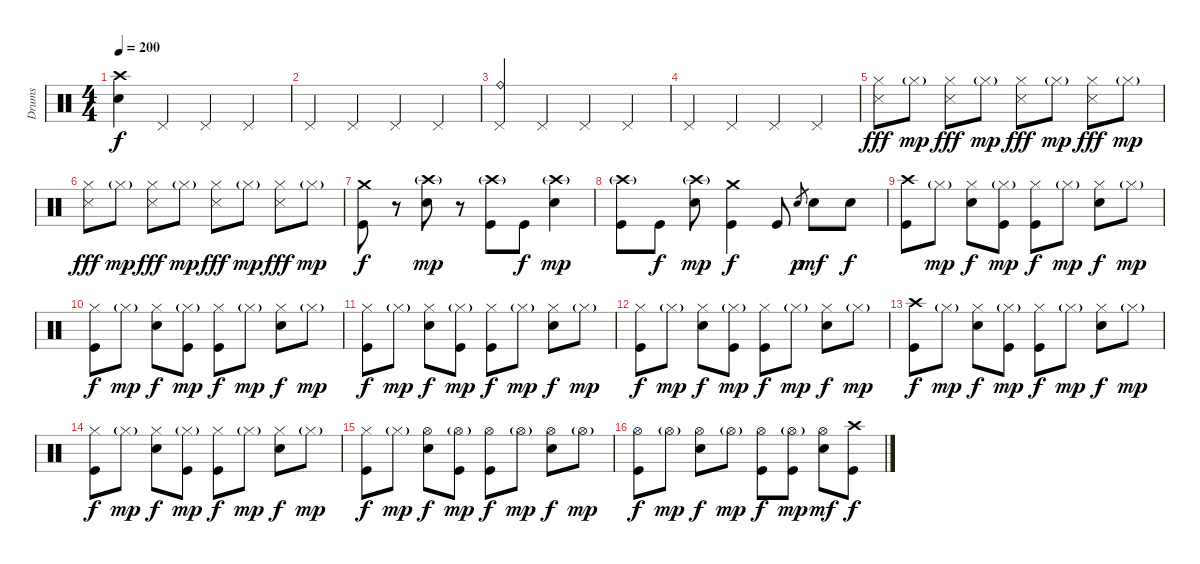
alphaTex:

\track ("Drums" "Drums") {instrument percussion}
\staff {score}
\articulation defaults
\ts (4 4)
\tempo 200
\clef neutral
\ks c
("Crash high (hit)" "Electric Snare (hit)").4{dy f} "Pedal Hi-Hat (hit)".4 "Pedal Hi-Hat (hit)".4 "Pedal Hi-Hat (hit)".4 |
"Pedal Hi-Hat (hit)".4 "Pedal Hi-Hat (hit)".4 "Pedal Hi-Hat (hit)".4 "Pedal Hi-Hat (hit)".4 |
("Ride (bell)" "Pedal Hi-Hat (hit)").4 "Pedal Hi-Hat (hit)".4 "Pedal Hi-Hat (hit)".4 "Pedal Hi-Hat (hit)".4 |
"Pedal Hi-Hat (hit)".4 "Pedal Hi-Hat (hit)".4 "Pedal Hi-Hat (hit)".4 "Pedal Hi-Hat (hit)".4 |
("Hi-Hat (closed)" "Snare (side stick) 3").8{dy fff} "Hi-Hat (closed)"{g}.8{dy mp} ("Hi-Hat (closed)" "Snare (side stick) 3").8{dy fff} "Hi-Hat (closed)"{g}.8{dy mp} ("Hi-Hat (closed)" "Snare (side stick) 3").8{dy fff} "Hi-Hat (closed)"{g}.8{dy mp} ("Hi-Hat (closed)" "Snare (side stick) 3").8{dy fff} "Hi-Hat (closed)"{g}.8{dy mp} |
("Hi-Hat (closed)" "Snare (side stick) 3").8{dy fff} "Hi-Hat (closed)"{g}.8{dy mp} ("Hi-Hat (closed)" "Snare (side stick) 3").8{dy fff} "Hi-Hat (closed)"{g}.8{dy mp} ("Hi-Hat (closed)" "Snare (side stick) 3").8{dy fff} "Hi-Hat (closed)"{g}.8{dy mp} ("Hi-Hat (closed)" "Snare (side stick) 3").8{dy fff} "Hi-Hat (closed)"{g}.8{dy mp} |
("Crash medium (hit)" "Kick (hit)").8{dy f} r.8 ("Crash high (hit)"{g} "Electric Snare (hit)").8{dy mp} r.8 ("Crash high (hit)"{g} "Kick (hit)").8 "Kick (hit)".8{dy f} ("Crash high (hit)"{g} "Electric Snare (hit)").4{dy mp} |
("Crash high (hit)"{g} "Kick (hit)").8 "Kick (hit)".8{dy f} ("Crash high (hit)"{g} "Electric Snare (hit)").8{dy mp} ("Crash medium (hit)" "Kick (hit)").4{dy f} "Kick (hit)".8 "Electric Snare (hit)".8{gr dy p} "Electric Snare (hit)".8{dy mf} "Electric Snare (hit)".8{dy f} |
("Crash high (hit)" "Kick (hit)").8 "Hi-Hat (closed)"{g}.8{dy mp} ("Hi-Hat (closed)" "Electric Snare (hit)").8{dy f} ("Hi-Hat (closed)"{g} "Kick (hit)").8{dy mp} ("Hi-Hat (closed)" "Kick (hit)").8{dy f} "Hi-Hat (closed)"{g}.8{dy mp} ("Hi-Hat (closed)" "Electric Snare (hit)").8{dy f} "Hi-Hat (closed)"{g}.8{dy mp} |
("Hi-Hat (closed)" "Kick (hit)").8{dy f} "Hi-Hat (closed)"{g}.8{dy mp} ("Hi-Hat (closed)" "Electric Snare (hit)").8{dy f} ("Hi-Hat (closed)"{g} "Kick (hit)").8{dy mp} ("Hi-Hat (closed)" "Kick (hit)").8{dy f} "Hi-Hat (closed)"{g}.8{dy mp} ("Hi-Hat (closed)" "Electric Snare (hit)").8{dy f} "Hi-Hat (closed)"{g}.8{dy mp} |
("Hi-Hat (closed)" "Kick (hit)").8{dy f} "Hi-Hat (closed)"{g}.8{dy mp} ("Hi-Hat (closed)" "Electric Snare (hit)").8{dy f} ("Hi-Hat (closed)"{g} "Kick (hit)").8{dy mp} ("Hi-Hat (closed)" "Kick (hit)").8{dy f} "Hi-Hat (closed)"{g}.8{dy mp} ("Hi-Hat (closed)" "Electric Snare (hit)").8{dy f} "Hi-Hat (closed)"{g}.8{dy mp} |
("Hi-Hat (closed)" "Kick (hit)").8{dy f} "Hi-Hat (closed)"{g}.8{dy mp} ("Hi-Hat (closed)" "Electric Snare (hit)").8{dy f} ("Hi-Hat (closed)"{g} "Kick (hit)").8{dy mp} ("Hi-Hat (closed)" "Kick (hit)").8{dy f} "Hi-Hat (closed)"{g}.8{dy mp} ("Hi-Hat (closed)" "Electric Snare (hit)").8{dy f} "Hi-Hat (closed)"{g}.8{dy mp} |
("Crash high (hit)" "Kick (hit)").8{dy f} "Hi-Hat (closed)"{g}.8{dy mp} ("Hi-Hat (closed)" "Electric Snare (hit)").8{dy f} ("Hi-Hat (closed)"{g} "Kick (hit)").8{dy mp} ("Hi-Hat (closed)" "Kick (hit)").8{dy f} "Hi-Hat (closed)"{g}.8{dy mp} ("Hi-Hat (closed)" "Electric Snare (hit)").8{dy f} "Hi-Hat (closed)"{g}.8{dy mp} |
("Hi-Hat (closed)" "Kick (hit)").8{dy f} "Hi-Hat (closed)"{g}.8{dy mp} ("Hi-Hat (closed)" "Electric Snare (hit)").8{dy f} ("Hi-Hat (closed)"{g} "Kick (hit)").8{dy mp} ("Hi-Hat (closed)" "Kick (hit)").8{dy f} "Hi-Hat (closed)"{g}.8{dy mp} ("Hi-Hat (closed)" "Electric Snare (hit)").8{dy f} "Hi-Hat (closed)"{g}.8{dy mp} |
("Hi-Hat (closed)" "Kick (hit)").8{dy f} "Hi-Hat (closed)"{g}.8{dy mp} ("Hi-Hat (open)" "Electric Snare (hit)").8{dy f} ("Hi-Hat (open)"{g} "Kick (hit)").8{dy mp} ("Hi-Hat (open)" "Kick (hit)").8{dy f} "Hi-Hat (open)"{g}.8{dy mp} ("Hi-Hat (open)" "Electric Snare (hit)").8{dy f} "Hi-Hat (open)"{g}.8{dy mp} |
("Hi-Hat (open)" "Kick (hit)").8{dy f} "Hi-Hat (open)"{g}.8{dy mp} ("Hi-Hat (open)" "Electric Snare (hit)").8{dy f} "Hi-Hat (open)"{g}.8{dy mp} ("Hi-Hat (open)" "Kick (hit)").8{dy f} ("Hi-Hat (open)"{g} "Kick (hit)").8{dy mp} ("Hi-Hat (open)" "Electric Snare (hit)").8{dy mf} ("Crash high (hit)" "Kick (hit)").8{dy f}
